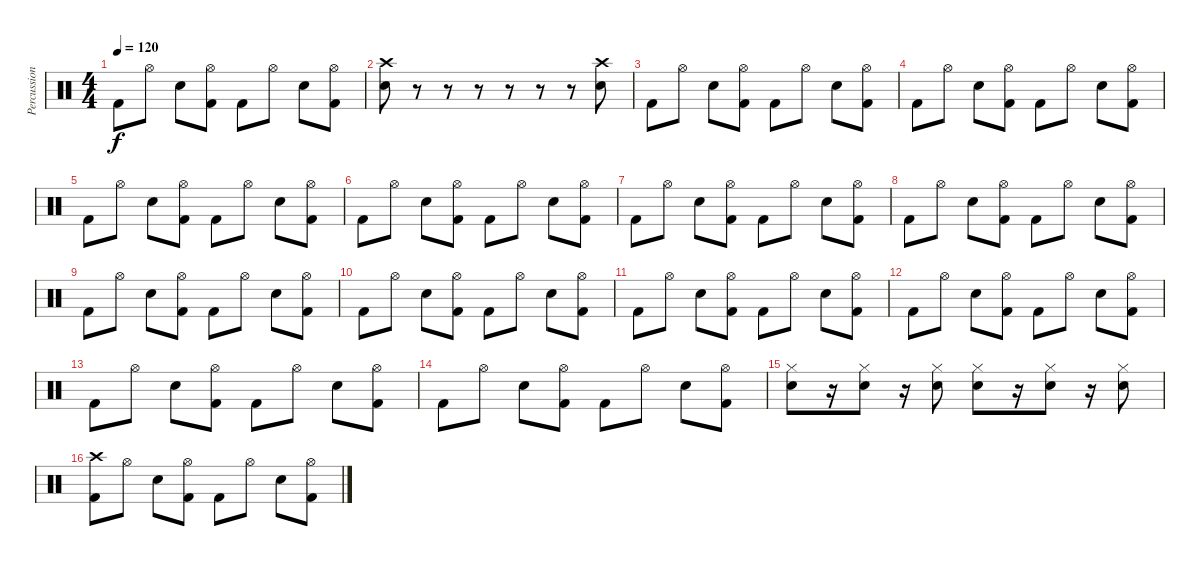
\track ("Percussions" "Percussion") {instrument percussion}
\staff {score}
\articulation defaults
\ts (4 4)
\tempo 120
\clef neutral
\ks c "Kick (hit) 2".8{dy f} "Hi-Hat (open)".8 "Electric Snare (hit)".8
("Kick (hit) 2" "Hi-Hat (open)").8 "Kick (hit) 2".8 "Hi-Hat (open)".8 "Electric Snare (hit)".8 ("Hi-Hat (open)" "Kick (hit) 2").8 |
("Crash high (hit)" "Electric Snare (hit)").8 r.8 r.8 r.8 r.8 r.8 r.8 ("Crash high (hit)" "Electric Snare (hit)").8 |
"Kick (hit) 2".8 "Hi-Hat (open)".8 "Electric Snare (hit)".8 ("Kick (hit) 2" "Hi-Hat (open)").8 "Kick (hit) 2".8 "Hi-Hat (open)".8 "Electric Snare (hit)".8 ("Hi-Hat (open)" "Kick (hit) 2").8 |
"Kick (hit) 2".8 "Hi-Hat (open)".8 "Electric Snare (hit)".8 ("Kick (hit) 2" "Hi-Hat (open)").8 "Kick (hit) 2".8 "Hi-Hat (open)".8 "Electric Snare (hit)".8 ("Hi-Hat (open)" "Kick (hit) 2").8 |
"Kick (hit) 2".8 "Hi-Hat (open)".8 "Electric Snare (hit)".8 ("Kick (hit) 2" "Hi-Hat (open)").8 "Kick (hit) 2".8 "Hi-Hat (open)".8 "Electric Snare (hit)".8 ("Hi-Hat (open)" "Kick (hit) 2").8 |
"Kick (hit) 2".8 "Hi-Hat (open)".8 "Electric Snare (hit)".8 ("Kick (hit) 2" "Hi-Hat (open)").8 "Kick (hit) 2".8 "Hi-Hat (open)".8 "Electric Snare (hit)".8 ("Hi-Hat (open)" "Kick (hit) 2").8 |
"Kick (hit) 2".8 "Hi-Hat (open)".8 "Electric Snare (hit)".8 ("Kick (hit) 2" "Hi-Hat (open)").8 "Kick (hit) 2".8 "Hi-Hat (open)".8 "Electric Snare (hit)".8 ("Hi-Hat (open)" "Kick (hit) 2").8 |
"Kick (hit) 2".8 "Hi-Hat (open)".8 "Electric Snare (hit)".8 ("Kick (hit) 2" "Hi-Hat (open)").8 "Kick (hit) 2".8 "Hi-Hat (open)".8 "Electric Snare (hit)".8 ("Hi-Hat (open)" "Kick (hit) 2").8 |
"Kick (hit) 2".8 "Hi-Hat (open)".8 "Electric Snare (hit)".8 ("Kick (hit) 2" "Hi-Hat (open)").8 "Kick (hit) 2".8 "Hi-Hat (open)".8 "Electric Snare (hit)".8 ("Hi-Hat (open)" "Kick (hit) 2").8 |
"Kick (hit) 2".8 "Hi-Hat (open)".8 "Electric Snare (hit)".8 ("Kick (hit) 2" "Hi-Hat (open)").8 "Kick (hit) 2".8 "Hi-Hat (open)".8 "Electric Snare (hit)".8 ("Hi-Hat (open)" "Kick (hit) 2").8 |
"Kick (hit) 2".8 "Hi-Hat (open)".8 "Electric Snare (hit)".8 ("Kick (hit) 2" "Hi-Hat (open)").8 "Kick (hit) 2".8 "Hi-Hat (open)".8 "Electric Snare (hit)".8 ("Hi-Hat (open)" "Kick (hit) 2").8 |
"Kick (hit) 2".8 "Hi-Hat (open)".8 "Electric Snare (hit)".8 ("Kick (hit) 2" "Hi-Hat (open)").8 "Kick (hit) 2".8 "Hi-Hat (open)".8 "Electric Snare (hit)".8 ("Hi-Hat (open)" "Kick (hit) 2").8 |
"Kick (hit) 2".8 "Hi-Hat (open)".8 "Electric Snare (hit)".8 ("Kick (hit) 2" "Hi-Hat (open)").8 "Kick (hit) 2".8 "Hi-Hat (open)".8 "Electric Snare (hit)".8 ("Hi-Hat (open)" "Kick (hit) 2").8 |
"Kick (hit) 2".8 "Hi-Hat (open)".8 "Electric Snare (hit)".8 ("Kick (hit) 2" "Hi-Hat (open)").8 "Kick (hit) 2".8 "Hi-Hat (open)".8 "Electric Snare (hit)".8 ("Hi-Hat (open)" "Kick (hit) 2").8 |
("Hi-Hat (closed)" "Electric Snare (hit)").8 r.16 ("Hi-Hat (closed)" "Electric Snare (hit)").8 r.16 ("Hi-Hat (closed)" "Electric Snare (hit)").8 ("Hi-Hat (closed)" "Electric Snare (hit)").8 r.16 ("Hi-Hat (closed)" "Electric Snare (hit)").8 r.16 ("Hi-Hat (closed)" "Electric Snare (hit)").8 |
("Crash high (hit)" "Kick (hit) 2").8 "Hi-Hat (open)".8 "Electric Snare (hit)".8 ("Kick (hit) 2" "Hi-Hat (open)").8 "Kick (hit) 2".8 "Hi-Hat (open)".8 "Electric Snare (hit)".8 ("Hi-Hat (open)" "Kick (hit) 2").8
